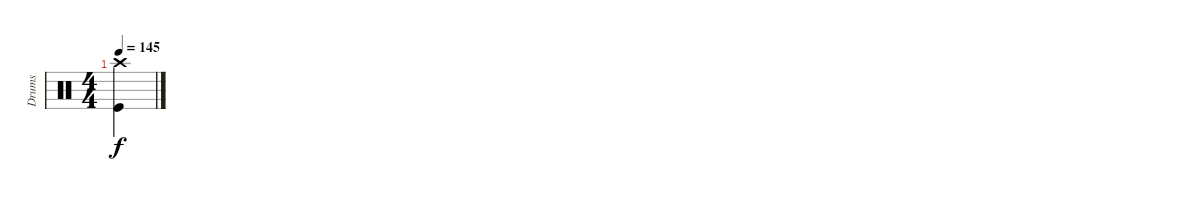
\track ("Drums" "Drums") {instrument percussion}
\staff {score}
\articulation defaults
\ts (4 4)
\tempo 145
\clef neutral
\ks c
("Crash high (hit)" "Kick (hit)").4{dy f volume 6}
